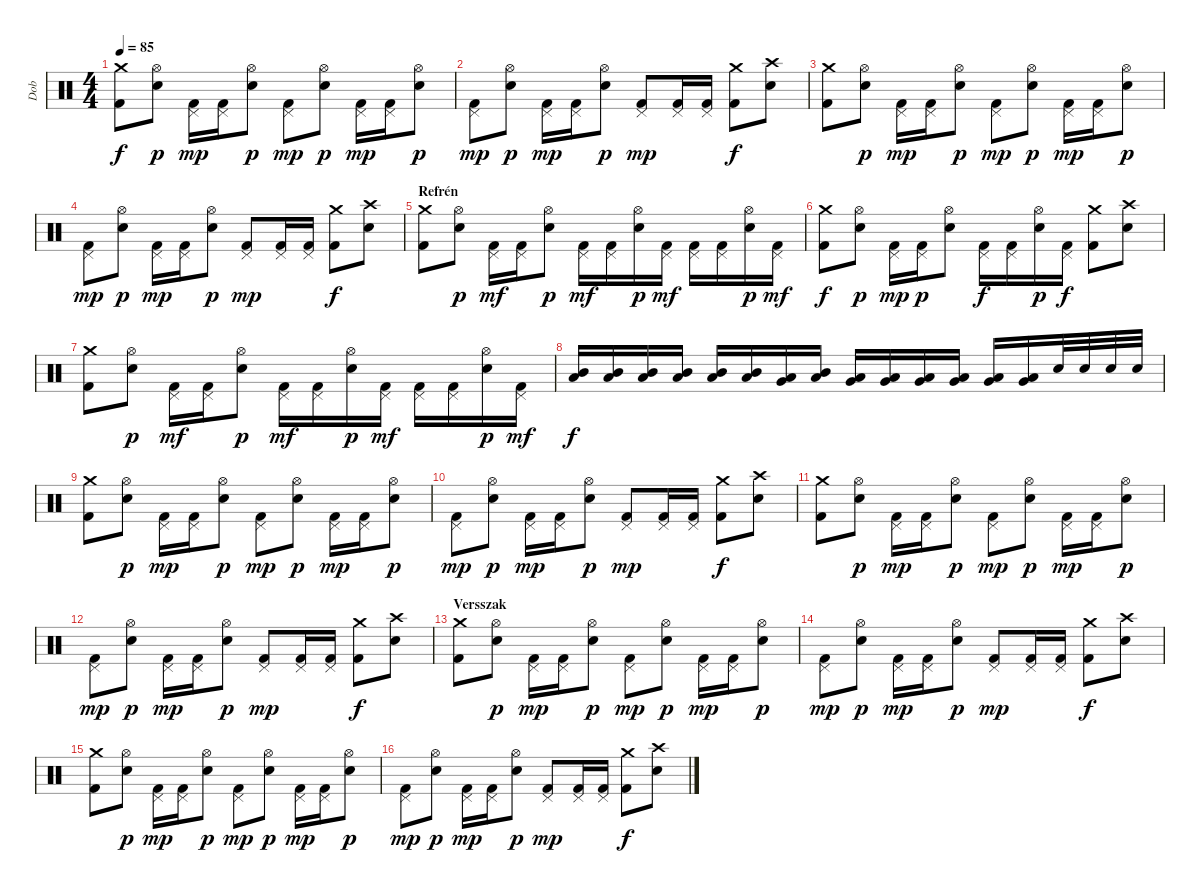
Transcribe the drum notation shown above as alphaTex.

\track ("Dob" "Dob") {instrument percussion}
\staff {score}
\articulation defaults
\ts (4 4)
\tempo 85
\clef neutral
\ks c
("Kick (hit) 2" "Crash medium (hit)").8{dy f} ("Snare (hit) 2" "Hi-Hat (open)").8{dy p} ("Kick (hit) 2" "Pedal Hi-Hat (hit)").16{dy mp} ("Kick (hit) 2" "Pedal Hi-Hat (hit)").16 ("Snare (hit) 2" "Hi-Hat (open)").8{dy p} ("Kick (hit) 2" "Pedal Hi-Hat (hit)").8{dy mp} ("Snare (hit) 2" "Hi-Hat (open)").8{dy p} ("Kick (hit) 2" "Pedal Hi-Hat (hit)").16{dy mp} ("Kick (hit) 2" "Pedal Hi-Hat (hit)").16 ("Snare (hit) 2" "Hi-Hat (open)").8{dy p} |
("Kick (hit) 2" "Pedal Hi-Hat (hit)").8{dy mp} ("Snare (hit) 2" "Hi-Hat (open)").8{dy p} ("Kick (hit) 2" "Pedal Hi-Hat (hit)").16{dy mp} ("Kick (hit) 2" "Pedal Hi-Hat (hit)").16 ("Snare (hit) 2" "Hi-Hat (open)").8{dy p} ("Kick (hit) 2" "Pedal Hi-Hat (hit)").8{dy mp} ("Kick (hit) 2" "Pedal Hi-Hat (hit)").16 ("Kick (hit) 2" "Pedal Hi-Hat (hit)").16 ("Kick (hit) 2" "Crash medium (hit)").8{dy f} ("Snare (hit) 2" "Crash high (hit)").8 |
("Kick (hit) 2" "Crash medium (hit)").8 ("Snare (hit) 2" "Hi-Hat (open)").8{dy p} ("Kick (hit) 2" "Pedal Hi-Hat (hit)").16{dy mp} ("Kick (hit) 2" "Pedal Hi-Hat (hit)").16 ("Snare (hit) 2" "Hi-Hat (open)").8{dy p} ("Kick (hit) 2" "Pedal Hi-Hat (hit)").8{dy mp} ("Snare (hit) 2" "Hi-Hat (open)").8{dy p} ("Kick (hit) 2" "Pedal Hi-Hat (hit)").16{dy mp} ("Kick (hit) 2" "Pedal Hi-Hat (hit)").16 ("Snare (hit) 2" "Hi-Hat (open)").8{dy p} |
("Kick (hit) 2" "Pedal Hi-Hat (hit)").8{dy mp} ("Snare (hit) 2" "Hi-Hat (open)").8{dy p} ("Kick (hit) 2" "Pedal Hi-Hat (hit)").16{dy mp} ("Kick (hit) 2" "Pedal Hi-Hat (hit)").16 ("Snare (hit) 2" "Hi-Hat (open)").8{dy p} ("Kick (hit) 2" "Pedal Hi-Hat (hit)").8{dy mp} ("Kick (hit) 2" "Pedal Hi-Hat (hit)").16 ("Kick (hit) 2" "Pedal Hi-Hat (hit)").16 ("Kick (hit) 2" "Crash medium (hit)").8{dy f} ("Snare (hit) 2" "Crash high (hit)").8 |
\section ("" "Refrén")
("Kick (hit) 2" "Crash medium (hit)").8 ("Snare (hit) 2" "Hi-Hat (open)").8{dy p} ("Kick (hit) 2" "Pedal Hi-Hat (hit)").16{dy mf} ("Kick (hit) 2" "Pedal Hi-Hat (hit)").16 ("Snare (hit) 2" "Hi-Hat (open)").8{dy p} ("Kick (hit) 2" "Pedal Hi-Hat (hit)").16{dy mf} ("Kick (hit) 2" "Pedal Hi-Hat (hit)").16 ("Snare (hit) 2" "Hi-Hat (open)").16{dy p} ("Kick (hit) 2" "Pedal Hi-Hat (hit)").16{dy mf} ("Kick (hit) 2" "Pedal Hi-Hat (hit)").16 ("Kick (hit) 2" "Pedal Hi-Hat (hit)").16 ("Snare (hit) 2" "Hi-Hat (open)").16{dy p} ("Kick (hit) 2" "Pedal Hi-Hat (hit)").16{dy mf} |
("Kick (hit) 2" "Crash medium (hit)").8{dy f} ("Snare (hit) 2" "Hi-Hat (open)").8{dy p} ("Kick (hit) 2" "Pedal Hi-Hat (hit)").16{dy mp} ("Kick (hit) 2" "Pedal Hi-Hat (hit)").16{dy p} ("Snare (hit) 2" "Hi-Hat (open)").8 ("Kick (hit) 2" "Pedal Hi-Hat (hit)").16{dy f} ("Kick (hit) 2" "Pedal Hi-Hat (hit)").16 ("Snare (hit) 2" "Hi-Hat (open)").16{dy p} ("Kick (hit) 2" "Pedal Hi-Hat (hit)").16{dy f} ("Kick (hit) 2" "Crash medium (hit)").8 ("Snare (hit) 2" "Crash high (hit)").8 |
("Kick (hit) 2" "Crash medium (hit)").8 ("Snare (hit) 2" "Hi-Hat (open)").8{dy p} ("Kick (hit) 2" "Pedal Hi-Hat (hit)").16{dy mf} ("Kick (hit) 2" "Pedal Hi-Hat (hit)").16 ("Snare (hit) 2" "Hi-Hat (open)").8{dy p} ("Kick (hit) 2" "Pedal Hi-Hat (hit)").16{dy mf} ("Kick (hit) 2" "Pedal Hi-Hat (hit)").16 ("Snare (hit) 2" "Hi-Hat (open)").16{dy p} ("Kick (hit) 2" "Pedal Hi-Hat (hit)").16{dy mf} ("Kick (hit) 2" "Pedal Hi-Hat (hit)").16 ("Kick (hit) 2" "Pedal Hi-Hat (hit)").16 ("Snare (hit) 2" "Hi-Hat (open)").16{dy p} ("Kick (hit) 2" "Pedal Hi-Hat (hit)").16{dy mf} |
("Mid Tom (hit)" "Low Tom (hit)").16{dy f} ("Mid Tom (hit)" "Low Tom (hit)").16 ("Mid Tom (hit)" "Low Tom (hit)").16 ("Mid Tom (hit)" "Low Tom (hit)").16 ("Mid Tom (hit)" "Low Tom (hit)").16 ("Mid Tom (hit)" "Low Tom (hit)").16 ("Low Tom (hit)" "Very Low Tom (hit)").16 ("Mid Tom (hit)" "Low Tom (hit)").16 ("Low Tom (hit)" "Very Low Tom (hit)").16 ("Low Tom (hit)" "Very Low Tom (hit)").16 ("Low Tom (hit)" "Very Low Tom (hit)").16 ("Low Tom (hit)" "Very Low Tom (hit)").16 ("Low Tom (hit)" "Very Low Tom (hit)").16 ("Low Tom (hit)" "Very Low Tom (hit)").16 "Snare (hit) 2".32 "Snare (hit) 2".32 "Snare (hit) 2".32 "Snare (hit) 2".32 |
("Kick (hit) 2" "Crash medium (hit)").8 ("Snare (hit) 2" "Hi-Hat (open)").8{dy p} ("Kick (hit) 2" "Pedal Hi-Hat (hit)").16{dy mp} ("Kick (hit) 2" "Pedal Hi-Hat (hit)").16 ("Snare (hit) 2" "Hi-Hat (open)").8{dy p} ("Kick (hit) 2" "Pedal Hi-Hat (hit)").8{dy mp} ("Snare (hit) 2" "Hi-Hat (open)").8{dy p} ("Kick (hit) 2" "Pedal Hi-Hat (hit)").16{dy mp} ("Kick (hit) 2" "Pedal Hi-Hat (hit)").16 ("Snare (hit) 2" "Hi-Hat (open)").8{dy p} |
("Kick (hit) 2" "Pedal Hi-Hat (hit)").8{dy mp} ("Snare (hit) 2" "Hi-Hat (open)").8{dy p} ("Kick (hit) 2" "Pedal Hi-Hat (hit)").16{dy mp} ("Kick (hit) 2" "Pedal Hi-Hat (hit)").16 ("Snare (hit) 2" "Hi-Hat (open)").8{dy p} ("Kick (hit) 2" "Pedal Hi-Hat (hit)").8{dy mp} ("Kick (hit) 2" "Pedal Hi-Hat (hit)").16 ("Kick (hit) 2" "Pedal Hi-Hat (hit)").16 ("Kick (hit) 2" "Crash medium (hit)").8{dy f} ("Snare (hit) 2" "Crash high (hit)").8 |
("Kick (hit) 2" "Crash medium (hit)").8 ("Snare (hit) 2" "Hi-Hat (open)").8{dy p} ("Kick (hit) 2" "Pedal Hi-Hat (hit)").16{dy mp} ("Kick (hit) 2" "Pedal Hi-Hat (hit)").16 ("Snare (hit) 2" "Hi-Hat (open)").8{dy p} ("Kick (hit) 2" "Pedal Hi-Hat (hit)").8{dy mp} ("Snare (hit) 2" "Hi-Hat (open)").8{dy p} ("Kick (hit) 2" "Pedal Hi-Hat (hit)").16{dy mp} ("Kick (hit) 2" "Pedal Hi-Hat (hit)").16 ("Snare (hit) 2" "Hi-Hat (open)").8{dy p} |
("Kick (hit) 2" "Pedal Hi-Hat (hit)").8{dy mp} ("Snare (hit) 2" "Hi-Hat (open)").8{dy p} ("Kick (hit) 2" "Pedal Hi-Hat (hit)").16{dy mp} ("Kick (hit) 2" "Pedal Hi-Hat (hit)").16 ("Snare (hit) 2" "Hi-Hat (open)").8{dy p} ("Kick (hit) 2" "Pedal Hi-Hat (hit)").8{dy mp} ("Kick (hit) 2" "Pedal Hi-Hat (hit)").16 ("Kick (hit) 2" "Pedal Hi-Hat (hit)").16 ("Kick (hit) 2" "Crash medium (hit)").8{dy f} ("Snare (hit) 2" "Crash high (hit)").8 |
\section ("" "Versszak")
("Kick (hit) 2" "Crash medium (hit)").8 ("Snare (hit) 2" "Hi-Hat (open)").8{dy p} ("Kick (hit) 2" "Pedal Hi-Hat (hit)").16{dy mp} ("Kick (hit) 2" "Pedal Hi-Hat (hit)").16 ("Snare (hit) 2" "Hi-Hat (open)").8{dy p} ("Kick (hit) 2" "Pedal Hi-Hat (hit)").8{dy mp} ("Snare (hit) 2" "Hi-Hat (open)").8{dy p} ("Kick (hit) 2" "Pedal Hi-Hat (hit)").16{dy mp} ("Kick (hit) 2" "Pedal Hi-Hat (hit)").16 ("Snare (hit) 2" "Hi-Hat (open)").8{dy p} |
("Kick (hit) 2" "Pedal Hi-Hat (hit)").8{dy mp} ("Snare (hit) 2" "Hi-Hat (open)").8{dy p} ("Kick (hit) 2" "Pedal Hi-Hat (hit)").16{dy mp} ("Kick (hit) 2" "Pedal Hi-Hat (hit)").16 ("Snare (hit) 2" "Hi-Hat (open)").8{dy p} ("Kick (hit) 2" "Pedal Hi-Hat (hit)").8{dy mp} ("Kick (hit) 2" "Pedal Hi-Hat (hit)").16 ("Kick (hit) 2" "Pedal Hi-Hat (hit)").16 ("Kick (hit) 2" "Crash medium (hit)").8{dy f} ("Snare (hit) 2" "Crash high (hit)").8 |
("Kick (hit) 2" "Crash medium (hit)").8 ("Snare (hit) 2" "Hi-Hat (open)").8{dy p} ("Kick (hit) 2" "Pedal Hi-Hat (hit)").16{dy mp} ("Kick (hit) 2" "Pedal Hi-Hat (hit)").16 ("Snare (hit) 2" "Hi-Hat (open)").8{dy p} ("Kick (hit) 2" "Pedal Hi-Hat (hit)").8{dy mp} ("Snare (hit) 2" "Hi-Hat (open)").8{dy p} ("Kick (hit) 2" "Pedal Hi-Hat (hit)").16{dy mp} ("Kick (hit) 2" "Pedal Hi-Hat (hit)").16 ("Snare (hit) 2" "Hi-Hat (open)").8{dy p} |
("Kick (hit) 2" "Pedal Hi-Hat (hit)").8{dy mp} ("Snare (hit) 2" "Hi-Hat (open)").8{dy p} ("Kick (hit) 2" "Pedal Hi-Hat (hit)").16{dy mp} ("Kick (hit) 2" "Pedal Hi-Hat (hit)").16 ("Snare (hit) 2" "Hi-Hat (open)").8{dy p} ("Kick (hit) 2" "Pedal Hi-Hat (hit)").8{dy mp} ("Kick (hit) 2" "Pedal Hi-Hat (hit)").16 ("Kick (hit) 2" "Pedal Hi-Hat (hit)").16 ("Kick (hit) 2" "Crash medium (hit)").8{dy f} ("Snare (hit) 2" "Crash high (hit)").8
